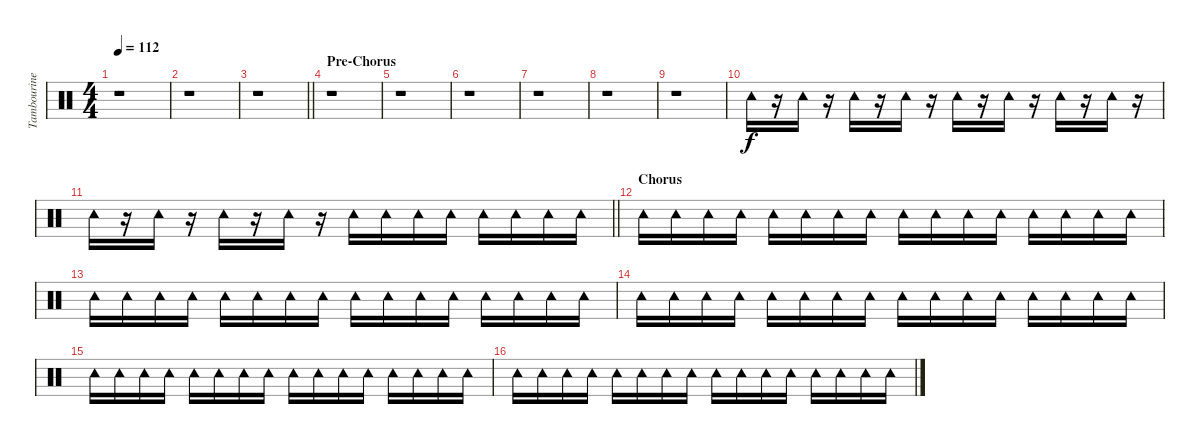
\track ("Tambourine" "Tambourine") {instrument percussion}
\staff {score}
\articulation defaults
\ts (4 4)
\tempo 112
\clef neutral
\ks c
r.1{dy f} |
r.1 |
\barLineRight lightlight
r.1 |
\section ("" "Pre-Chorus")
r.1 |
r.1 |
r.1 |
r.1 |
r.1 |
r.1 |
"Tambourine (hit)".16 r.16 "Tambourine (hit)".16 r.16 "Tambourine (hit)".16 r.16 "Tambourine (hit)".16 r.16 "Tambourine (hit)".16 r.16 "Tambourine (hit)".16 r.16 "Tambourine (hit)".16 r.16 "Tambourine (hit)".16 r.16 |
\barLineRight lightlight "Tambourine (hit)".16
r.16 "Tambourine (hit)".16 r.16 "Tambourine (hit)".16 r.16 "Tambourine (hit)".16 r.16 "Tambourine (hit)".16 "Tambourine (hit)".16 "Tambourine (hit)".16 "Tambourine (hit)".16 "Tambourine (hit)".16 "Tambourine (hit)".16 "Tambourine (hit)".16 "Tambourine (hit)".16 |
\section ("" "Chorus")
"Tambourine (hit)".16 "Tambourine (hit)".16 "Tambourine (hit)".16 "Tambourine (hit)".16 "Tambourine (hit)".16 "Tambourine (hit)".16 "Tambourine (hit)".16 "Tambourine (hit)".16 "Tambourine (hit)".16 "Tambourine (hit)".16 "Tambourine (hit)".16 "Tambourine (hit)".16 "Tambourine (hit)".16 "Tambourine (hit)".16 "Tambourine (hit)".16 "Tambourine (hit)".16 |
"Tambourine (hit)".16 "Tambourine (hit)".16 "Tambourine (hit)".16 "Tambourine (hit)".16 "Tambourine (hit)".16 "Tambourine (hit)".16 "Tambourine (hit)".16 "Tambourine (hit)".16 "Tambourine (hit)".16 "Tambourine (hit)".16 "Tambourine (hit)".16 "Tambourine (hit)".16 "Tambourine (hit)".16 "Tambourine (hit)".16 "Tambourine (hit)".16 "Tambourine (hit)".16 |
"Tambourine (hit)".16 "Tambourine (hit)".16 "Tambourine (hit)".16 "Tambourine (hit)".16 "Tambourine (hit)".16 "Tambourine (hit)".16 "Tambourine (hit)".16 "Tambourine (hit)".16 "Tambourine (hit)".16 "Tambourine (hit)".16 "Tambourine (hit)".16 "Tambourine (hit)".16 "Tambourine (hit)".16 "Tambourine (hit)".16 "Tambourine (hit)".16 "Tambourine (hit)".16 |
"Tambourine (hit)".16 "Tambourine (hit)".16 "Tambourine (hit)".16 "Tambourine (hit)".16 "Tambourine (hit)".16 "Tambourine (hit)".16 "Tambourine (hit)".16 "Tambourine (hit)".16 "Tambourine (hit)".16 "Tambourine (hit)".16 "Tambourine (hit)".16 "Tambourine (hit)".16 "Tambourine (hit)".16 "Tambourine (hit)".16 "Tambourine (hit)".16 "Tambourine (hit)".16 |
"Tambourine (hit)".16 "Tambourine (hit)".16 "Tambourine (hit)".16 "Tambourine (hit)".16 "Tambourine (hit)".16 "Tambourine (hit)".16 "Tambourine (hit)".16 "Tambourine (hit)".16 "Tambourine (hit)".16 "Tambourine (hit)".16 "Tambourine (hit)".16 "Tambourine (hit)".16 "Tambourine (hit)".16 "Tambourine (hit)".16 "Tambourine (hit)".16 "Tambourine (hit)".16
